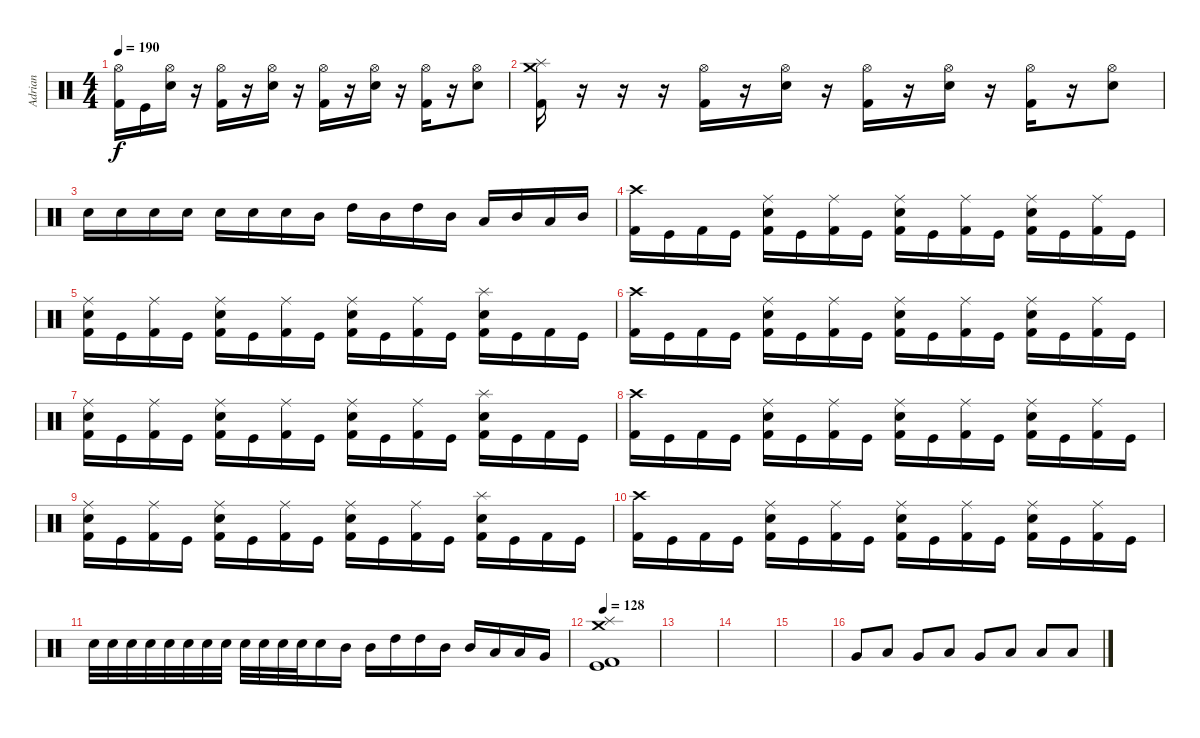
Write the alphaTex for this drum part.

\track ("Adrian" "Adrian") {instrument percussion}
\staff {score}
\articulation defaults
\ts (4 4)
\tempo 190
\clef neutral
\ks c
("Hi-Hat (open)" "Kick (hit) 2").16{dy f} "Kick (hit)".16 ("Hi-Hat (open)" "Electric Snare (hit)").16 r.16 ("Hi-Hat (open)" "Kick (hit) 2").16 r.16 ("Hi-Hat (open)" "Electric Snare (hit)").16 r.16 ("Hi-Hat (open)" "Kick (hit) 2").16 r.16 ("Hi-Hat (open)" "Electric Snare (hit)").16 r.16 ("Hi-Hat (open)" "Kick (hit) 2").16 r.16 ("Hi-Hat (open)" "Electric Snare (hit)").8 |
("Splash (hit)" "Crash medium (hit)" "Kick (hit) 2").16 r.16 r.16 r.16 ("Hi-Hat (open)" "Kick (hit) 2").16 r.16 ("Hi-Hat (open)" "Electric Snare (hit)").16 r.16 ("Hi-Hat (open)" "Kick (hit) 2").16 r.16 ("Hi-Hat (open)" "Electric Snare (hit)").16 r.16 ("Hi-Hat (open)" "Kick (hit) 2").16 r.16 ("Hi-Hat (open)" "Electric Snare (hit)").8 |
"Electric Snare (hit)".16 "Electric Snare (hit)".16 "Electric Snare (hit)".16 "Electric Snare (hit)".16 "Electric Snare (hit)".16 "Electric Snare (hit)".16 "Electric Snare (hit)".16 "Mid Tom (hit)".16 "High Tom (hit)".16 "Mid Tom (hit)".16 "High Tom (hit)".16 "Mid Tom (hit)".16 "Low Tom (hit)".16 "Mid Tom (hit)".16 "Low Tom (hit)".16 "Mid Tom (hit)".16 |
("Crash high (hit)" "Kick (hit) 2").16 "Kick (hit)".16 "Kick (hit) 2".16 "Kick (hit)".16 ("Ride (middle)" "Electric Snare (hit)" "Kick (hit) 2").16 "Kick (hit)".16 ("Ride (middle)" "Kick (hit) 2").16 "Kick (hit)".16 ("Ride (middle)" "Electric Snare (hit)" "Kick (hit) 2").16 "Kick (hit)".16 ("Ride (middle)" "Kick (hit) 2").16 "Kick (hit)".16 ("Ride (middle)" "Electric Snare (hit)" "Kick (hit) 2").16 "Kick (hit)".16 ("Ride (middle)" "Kick (hit) 2").16 "Kick (hit)".16 |
("Ride (middle)" "Electric Snare (hit)" "Kick (hit) 2").16 "Kick (hit)".16 ("Ride (middle)" "Kick (hit) 2").16 "Kick (hit)".16 ("Ride (middle)" "Electric Snare (hit)" "Kick (hit) 2").16 "Kick (hit)".16 ("Ride (middle)" "Kick (hit) 2").16 "Kick (hit)".16 ("Ride (middle)" "Electric Snare (hit)" "Kick (hit) 2").16 "Kick (hit)".16 ("Ride (middle)" "Kick (hit) 2").16 "Kick (hit)".16 ("Splash (hit)" "Electric Snare (hit)" "Kick (hit) 2").16 "Kick (hit)".16 "Kick (hit) 2".16 "Kick (hit)".16 |
("Crash high (hit)" "Kick (hit) 2").16 "Kick (hit)".16 "Kick (hit) 2".16 "Kick (hit)".16 ("Ride (middle)" "Electric Snare (hit)" "Kick (hit) 2").16 "Kick (hit)".16 ("Ride (middle)" "Kick (hit) 2").16 "Kick (hit)".16 ("Ride (middle)" "Electric Snare (hit)" "Kick (hit) 2").16 "Kick (hit)".16 ("Ride (middle)" "Kick (hit) 2").16 "Kick (hit)".16 ("Ride (middle)" "Electric Snare (hit)" "Kick (hit) 2").16 "Kick (hit)".16 ("Ride (middle)" "Kick (hit) 2").16 "Kick (hit)".16 |
("Ride (middle)" "Electric Snare (hit)" "Kick (hit) 2").16 "Kick (hit)".16 ("Ride (middle)" "Kick (hit) 2").16 "Kick (hit)".16 ("Ride (middle)" "Electric Snare (hit)" "Kick (hit) 2").16 "Kick (hit)".16 ("Ride (middle)" "Kick (hit) 2").16 "Kick (hit)".16 ("Ride (middle)" "Electric Snare (hit)" "Kick (hit) 2").16 "Kick (hit)".16 ("Ride (middle)" "Kick (hit) 2").16 "Kick (hit)".16 ("Splash (hit)" "Electric Snare (hit)" "Kick (hit) 2").16 "Kick (hit)".16 "Kick (hit) 2".16 "Kick (hit)".16 |
("Crash high (hit)" "Kick (hit) 2").16 "Kick (hit)".16 "Kick (hit) 2".16 "Kick (hit)".16 ("Ride (middle)" "Electric Snare (hit)" "Kick (hit) 2").16 "Kick (hit)".16 ("Ride (middle)" "Kick (hit) 2").16 "Kick (hit)".16 ("Ride (middle)" "Electric Snare (hit)" "Kick (hit) 2").16 "Kick (hit)".16 ("Ride (middle)" "Kick (hit) 2").16 "Kick (hit)".16 ("Ride (middle)" "Electric Snare (hit)" "Kick (hit) 2").16 "Kick (hit)".16 ("Ride (middle)" "Kick (hit) 2").16 "Kick (hit)".16 |
("Ride (middle)" "Electric Snare (hit)" "Kick (hit) 2").16 "Kick (hit)".16 ("Ride (middle)" "Kick (hit) 2").16 "Kick (hit)".16 ("Ride (middle)" "Electric Snare (hit)" "Kick (hit) 2").16 "Kick (hit)".16 ("Ride (middle)" "Kick (hit) 2").16 "Kick (hit)".16 ("Ride (middle)" "Electric Snare (hit)" "Kick (hit) 2").16 "Kick (hit)".16 ("Ride (middle)" "Kick (hit) 2").16 "Kick (hit)".16 ("Splash (hit)" "Electric Snare (hit)" "Kick (hit) 2").16 "Kick (hit)".16 "Kick (hit) 2".16 "Kick (hit)".16 |
("Crash high (hit)" "Kick (hit) 2").16 "Kick (hit)".16 "Kick (hit) 2".16 "Kick (hit)".16 ("Ride (middle)" "Electric Snare (hit)" "Kick (hit) 2").16 "Kick (hit)".16 ("Ride (middle)" "Kick (hit) 2").16 "Kick (hit)".16 ("Ride (middle)" "Electric Snare (hit)" "Kick (hit) 2").16 "Kick (hit)".16 ("Ride (middle)" "Kick (hit) 2").16 "Kick (hit)".16 ("Ride (middle)" "Electric Snare (hit)" "Kick (hit) 2").16 "Kick (hit)".16 ("Ride (middle)" "Kick (hit) 2").16 "Kick (hit)".16 |
"Electric Snare (hit)".32 "Electric Snare (hit)".32 "Electric Snare (hit)".32 "Electric Snare (hit)".32 "Electric Snare (hit)".32 "Electric Snare (hit)".32 "Electric Snare (hit)".32 "Electric Snare (hit)".32 "Electric Snare (hit)".32 "Electric Snare (hit)".32 "Electric Snare (hit)".32 "Electric Snare (hit)".32 "Electric Snare (hit)".16 "Mid Tom (hit)".16 "Mid Tom (hit)".16 "High Tom (hit)".16 "High Tom (hit)".16 "Mid Tom (hit)".16 "Mid Tom (hit)".16 "Low Tom (hit)".16 "Low Tom (hit)".16 "Very Low Tom (hit)".16 |
\tempo 125
\tempo 128
("Crash medium (hit)" "Splash (hit)" "Kick (hit)" "Kick (hit) 2").1 |
|
|
|
"Very Low Tom (hit)".8{volume 16} "Low Floor Tom (hit)".8 "Very Low Tom (hit)".8 "Low Floor Tom (hit)".8 "Very Low Tom (hit)".8 "Low Floor Tom (hit)".8 "Low Floor Tom (hit)".8 "Low Floor Tom (hit)".8
